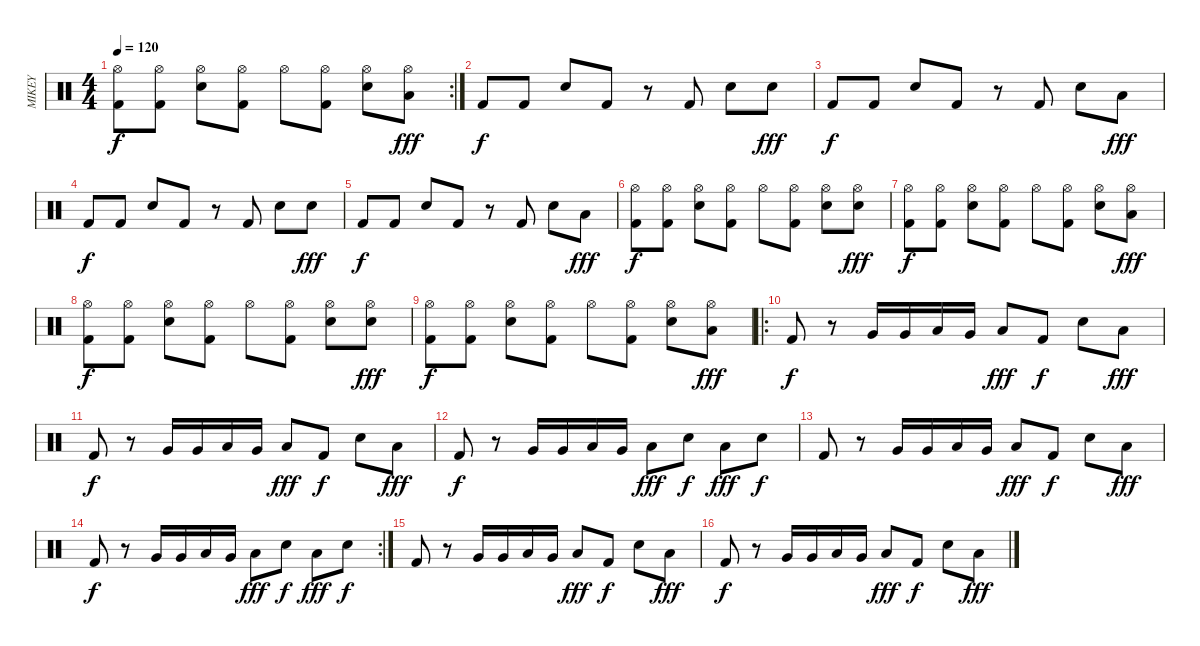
\track ("MIKEY" "MIKEY") {instrument percussion}
\staff {score}
\articulation defaults
\rc 2
\ts (4 4)
\tempo 120
\clef neutral
\ks c
("Kick (hit) 2" "Hi-Hat (open)").8{dy f} ("Kick (hit) 2" "Hi-Hat (open)").8 ("Electric Snare (hit)" "Hi-Hat (open)").8 ("Kick (hit) 2" "Hi-Hat (open)").8 "Hi-Hat (open)".8 ("Kick (hit) 2" "Hi-Hat (open)").8 ("Electric Snare (hit)" "Hi-Hat (open)").8 ("Low Tom (hit)" "Hi-Hat (open)").8{dy fff} |
"Kick (hit) 2".8{dy f} "Kick (hit) 2".8 "Electric Snare (hit)".8 "Kick (hit) 2".8 r.8 "Kick (hit) 2".8 "Electric Snare (hit)".8 "Electric Snare (hit)".8{dy fff} |
"Kick (hit) 2".8{dy f} "Kick (hit) 2".8 "Electric Snare (hit)".8 "Kick (hit) 2".8 r.8 "Kick (hit) 2".8 "Electric Snare (hit)".8 "Low Tom (hit)".8{dy fff} |
"Kick (hit) 2".8{dy f} "Kick (hit) 2".8 "Electric Snare (hit)".8 "Kick (hit) 2".8 r.8 "Kick (hit) 2".8 "Electric Snare (hit)".8 "Electric Snare (hit)".8{dy fff} |
"Kick (hit) 2".8{dy f} "Kick (hit) 2".8 "Electric Snare (hit)".8 "Kick (hit) 2".8 r.8 "Kick (hit) 2".8 "Electric Snare (hit)".8 "Low Tom (hit)".8{dy fff} |
("Kick (hit) 2" "Hi-Hat (open)").8{dy f} ("Kick (hit) 2" "Hi-Hat (open)").8 ("Electric Snare (hit)" "Hi-Hat (open)").8 ("Kick (hit) 2" "Hi-Hat (open)").8 "Hi-Hat (open)".8 ("Kick (hit) 2" "Hi-Hat (open)").8 ("Electric Snare (hit)" "Hi-Hat (open)").8 ("Electric Snare (hit)" "Hi-Hat (open)").8{dy fff} |
("Kick (hit) 2" "Hi-Hat (open)").8{dy f} ("Kick (hit) 2" "Hi-Hat (open)").8 ("Electric Snare (hit)" "Hi-Hat (open)").8 ("Kick (hit) 2" "Hi-Hat (open)").8 "Hi-Hat (open)".8 ("Kick (hit) 2" "Hi-Hat (open)").8 ("Electric Snare (hit)" "Hi-Hat (open)").8 ("Low Tom (hit)" "Hi-Hat (open)").8{dy fff} |
("Kick (hit) 2" "Hi-Hat (open)").8{dy f} ("Kick (hit) 2" "Hi-Hat (open)").8 ("Electric Snare (hit)" "Hi-Hat (open)").8 ("Kick (hit) 2" "Hi-Hat (open)").8 "Hi-Hat (open)".8 ("Kick (hit) 2" "Hi-Hat (open)").8 ("Electric Snare (hit)" "Hi-Hat (open)").8 ("Electric Snare (hit)" "Hi-Hat (open)").8{dy fff} |
("Kick (hit) 2" "Hi-Hat (open)").8{dy f} ("Kick (hit) 2" "Hi-Hat (open)").8 ("Electric Snare (hit)" "Hi-Hat (open)").8 ("Kick (hit) 2" "Hi-Hat (open)").8 "Hi-Hat (open)".8 ("Kick (hit) 2" "Hi-Hat (open)").8 ("Electric Snare (hit)" "Hi-Hat (open)").8 ("Low Tom (hit)" "Hi-Hat (open)").8{dy fff} |
\ro "Kick (hit) 2".8{dy f volume 9}
r.8 "Very Low Tom (hit)".16 "Very Low Tom (hit)".16 "Low Tom (hit)".16 "Very Low Tom (hit)".16 "Low Floor Tom (hit)".8{dy fff} "Kick (hit) 2".8{dy f} "Snare (hit) 2".8 "Low Floor Tom (hit)".8{dy fff} |
"Kick (hit) 2".8{dy f} r.8 "Very Low Tom (hit)".16 "Very Low Tom (hit)".16 "Low Tom (hit)".16 "Very Low Tom (hit)".16 "Low Floor Tom (hit)".8{dy fff} "Kick (hit) 2".8{dy f} "Snare (hit) 2".8 "Low Floor Tom (hit)".8{dy fff} |
"Kick (hit) 2".8{dy f} r.8 "Very Low Tom (hit)".16 "Very Low Tom (hit)".16 "Low Tom (hit)".16 "Very Low Tom (hit)".16 "Low Floor Tom (hit)".8{dy fff} "Electric Snare (hit)".8{dy f} "Low Floor Tom (hit)".8{dy fff} "Electric Snare (hit)".8{dy f} |
"Kick (hit) 2".8 r.8 "Very Low Tom (hit)".16 "Very Low Tom (hit)".16 "Low Tom (hit)".16 "Very Low Tom (hit)".16 "Low Floor Tom (hit)".8{dy fff} "Kick (hit) 2".8{dy f} "Snare (hit) 2".8 "Low Floor Tom (hit)".8{dy fff} |
\rc 2 "Kick (hit) 2".8{dy f}
r.8 "Very Low Tom (hit)".16 "Very Low Tom (hit)".16 "Low Tom (hit)".16 "Very Low Tom (hit)".16 "Low Floor Tom (hit)".8{dy fff} "Electric Snare (hit)".8{dy f} "Low Floor Tom (hit)".8{dy fff} "Electric Snare (hit)".8{dy f} |
"Kick (hit) 2".8{volume 11} r.8 "Very Low Tom (hit)".16 "Very Low Tom (hit)".16 "Low Tom (hit)".16 "Very Low Tom (hit)".16 "Low Floor Tom (hit)".8{dy fff} "Kick (hit) 2".8{dy f} "Snare (hit) 2".8 "Low Floor Tom (hit)".8{dy fff} |
"Kick (hit) 2".8{dy f} r.8 "Very Low Tom (hit)".16 "Very Low Tom (hit)".16 "Low Tom (hit)".16 "Very Low Tom (hit)".16 "Low Floor Tom (hit)".8{dy fff} "Kick (hit) 2".8{dy f} "Snare (hit) 2".8 "Low Floor Tom (hit)".8{dy fff}
